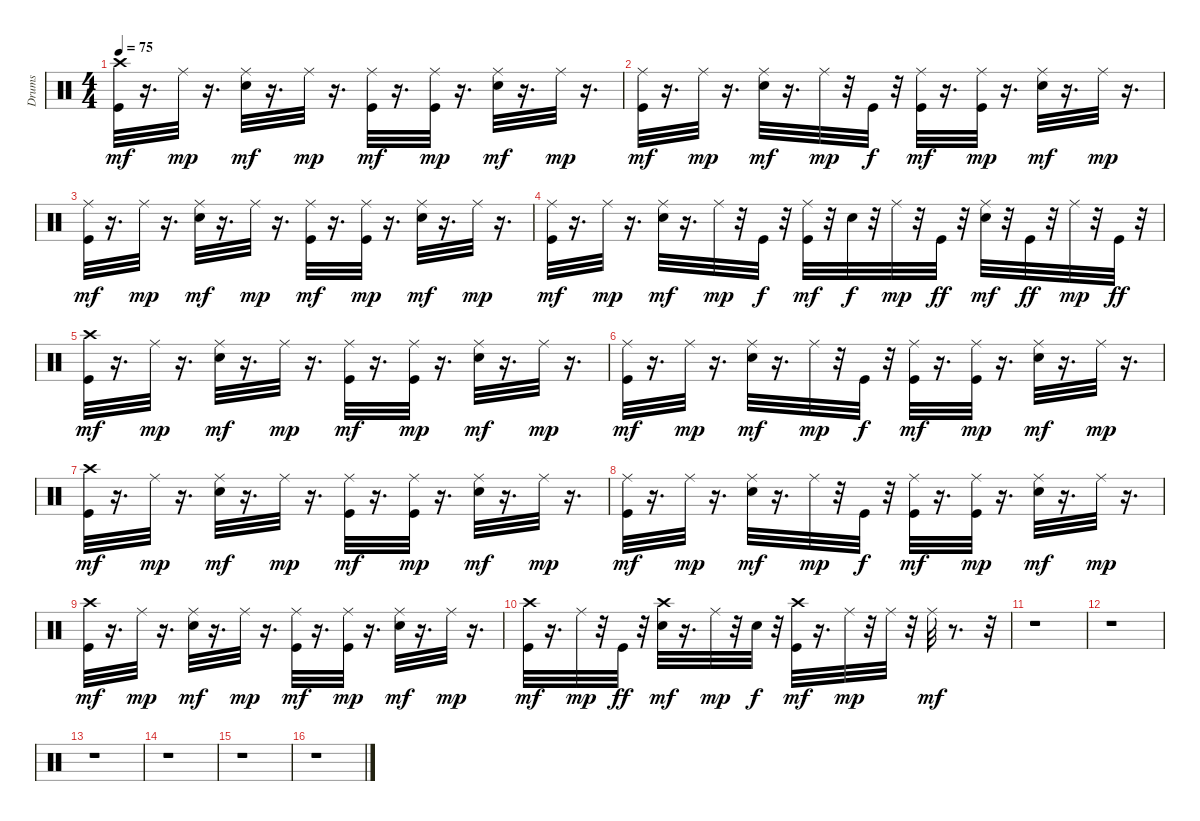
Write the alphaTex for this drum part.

\track ("Drums" "Drums") {instrument percussion}
\staff {score}
\articulation defaults
\ts (4 4)
\tempo 75
\clef neutral
\ks c
("Kick (hit)" "Crash high (hit)").32{dy mf} r.16{d} "Ride (middle)".32{dy mp} r.16{d} ("Snare (hit) 2" "Ride (middle)").32{dy mf} r.16{d} "Ride (middle)".32{dy mp} r.16{d} ("Kick (hit)" "Ride (middle)").32{dy mf} r.16{d} ("Kick (hit)" "Ride (middle)").32{dy mp} r.16{d} ("Snare (hit) 2" "Ride (middle)").32{dy mf} r.16{d} "Ride (middle)".32{dy mp} r.16{d} |
("Kick (hit)" "Ride (middle)").32{dy mf} r.16{d} "Ride (middle)".32{dy mp} r.16{d} ("Snare (hit) 2" "Ride (middle)").32{dy mf} r.16{d} "Ride (middle)".32{dy mp} r.32 "Kick (hit)".32{dy f} r.32 ("Kick (hit)" "Ride (middle)").32{dy mf} r.16{d} ("Kick (hit)" "Ride (middle)").32{dy mp} r.16{d} ("Snare (hit) 2" "Ride (middle)").32{dy mf} r.16{d} "Ride (middle)".32{dy mp} r.16{d} |
("Kick (hit)" "Ride (middle)").32{dy mf} r.16{d} "Ride (middle)".32{dy mp} r.16{d} ("Snare (hit) 2" "Ride (middle)").32{dy mf} r.16{d} "Ride (middle)".32{dy mp} r.16{d} ("Kick (hit)" "Ride (middle)").32{dy mf} r.16{d} ("Kick (hit)" "Ride (middle)").32{dy mp} r.16{d} ("Snare (hit) 2" "Ride (middle)").32{dy mf} r.16{d} "Ride (middle)".32{dy mp} r.16{d} |
("Kick (hit)" "Ride (middle)").32{dy mf} r.16{d} "Ride (middle)".32{dy mp} r.16{d} ("Snare (hit) 2" "Ride (middle)").32{dy mf} r.16{d} "Ride (middle)".32{dy mp} r.32 "Kick (hit)".32{dy f} r.32 ("Kick (hit)" "Ride (middle)").32{dy mf} r.32 "Snare (hit) 2".32{dy f} r.32 "Ride (middle)".32{dy mp} r.32 "Kick (hit)".32{dy ff} r.32 ("Snare (hit) 2" "Ride (middle)").32{dy mf} r.32 "Kick (hit)".32{dy ff} r.32 "Ride (middle)".32{dy mp} r.32 "Kick (hit)".32{dy ff} r.32 |
("Kick (hit)" "Crash high (hit)").32{dy mf} r.16{d} "Ride (middle)".32{dy mp} r.16{d} ("Snare (hit) 2" "Ride (middle)").32{dy mf} r.16{d} "Ride (middle)".32{dy mp} r.16{d} ("Kick (hit)" "Ride (middle)").32{dy mf} r.16{d} ("Kick (hit)" "Ride (middle)").32{dy mp} r.16{d} ("Snare (hit) 2" "Ride (middle)").32{dy mf} r.16{d} "Ride (middle)".32{dy mp} r.16{d} |
("Kick (hit)" "Ride (middle)").32{dy mf} r.16{d} "Ride (middle)".32{dy mp} r.16{d} ("Snare (hit) 2" "Ride (middle)").32{dy mf} r.16{d} "Ride (middle)".32{dy mp} r.32 "Kick (hit)".32{dy f} r.32 ("Kick (hit)" "Ride (middle)").32{dy mf} r.16{d} ("Kick (hit)" "Ride (middle)").32{dy mp} r.16{d} ("Snare (hit) 2" "Ride (middle)").32{dy mf} r.16{d} "Ride (middle)".32{dy mp} r.16{d} |
("Kick (hit)" "Crash high (hit)").32{dy mf} r.16{d} "Ride (middle)".32{dy mp} r.16{d} ("Snare (hit) 2" "Ride (middle)").32{dy mf} r.16{d} "Ride (middle)".32{dy mp} r.16{d} ("Kick (hit)" "Ride (middle)").32{dy mf} r.16{d} ("Kick (hit)" "Ride (middle)").32{dy mp} r.16{d} ("Snare (hit) 2" "Ride (middle)").32{dy mf} r.16{d} "Ride (middle)".32{dy mp} r.16{d} |
("Kick (hit)" "Ride (middle)").32{dy mf} r.16{d} "Ride (middle)".32{dy mp} r.16{d} ("Snare (hit) 2" "Ride (middle)").32{dy mf} r.16{d} "Ride (middle)".32{dy mp} r.32 "Kick (hit)".32{dy f} r.32 ("Kick (hit)" "Ride (middle)").32{dy mf} r.16{d} ("Kick (hit)" "Ride (middle)").32{dy mp} r.16{d} ("Snare (hit) 2" "Ride (middle)").32{dy mf} r.16{d} "Ride (middle)".32{dy mp} r.16{d} |
("Kick (hit)" "Crash high (hit)").32{dy mf} r.16{d} "Ride (middle)".32{dy mp} r.16{d} ("Snare (hit) 2" "Ride (middle)").32{dy mf} r.16{d} "Ride (middle)".32{dy mp} r.16{d} ("Kick (hit)" "Ride (middle)").32{dy mf} r.16{d} ("Kick (hit)" "Ride (middle)").32{dy mp} r.16{d} ("Snare (hit) 2" "Ride (middle)").32{dy mf} r.16{d} "Ride (middle)".32{dy mp} r.16{d} |
("Kick (hit)" "Crash high (hit)").32{dy mf} r.16{d} "Ride (middle)".32{dy mp} r.32 "Kick (hit)".32{dy ff} r.32 ("Snare (hit) 2" "Crash high (hit)").32{dy mf} r.16{d} "Ride (middle)".32{dy mp} r.32 "Snare (hit) 2".32{dy f} r.32 ("Kick (hit)" "Crash high (hit)").32{dy mf} r.16{d} "Ride (middle)".32{dy mp} r.32 "Ride (middle)".32 r.32 "Ride (middle)".32{dy mf} r.8{d} r.32 |
r.1 |
r.1 |
r.1 |
r.1 |
r.1 |
r.1
